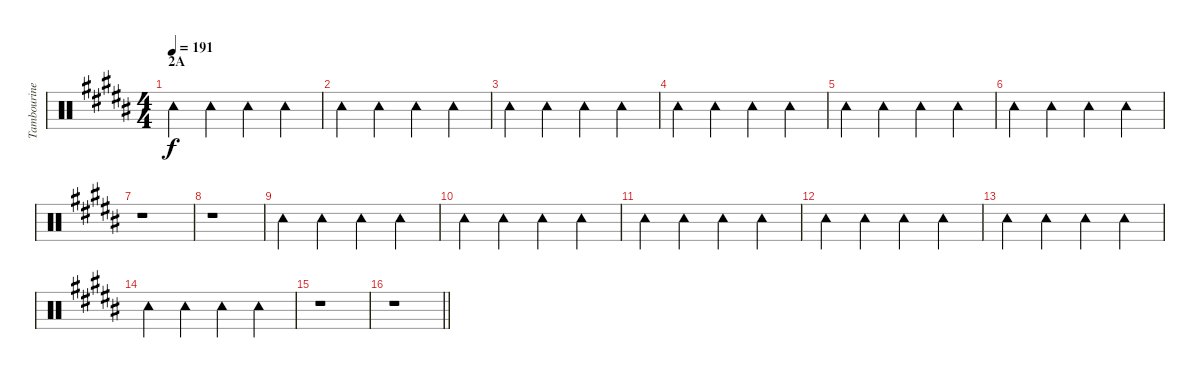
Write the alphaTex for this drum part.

\track ("Tambourine" "Tambourine") {instrument percussion}
\staff {score}
\articulation defaults
\ts (4 4)
\section ("" "2A")
\tempo 191
\clef neutral
\ks b "Tambourine (hit)".4{dy f} "Tambourine (hit)".4 "Tambourine (hit)".4 "Tambourine (hit)".4
|
"Tambourine (hit)".4 "Tambourine (hit)".4 "Tambourine (hit)".4 "Tambourine (hit)".4 |
"Tambourine (hit)".4 "Tambourine (hit)".4 "Tambourine (hit)".4 "Tambourine (hit)".4 |
"Tambourine (hit)".4 "Tambourine (hit)".4 "Tambourine (hit)".4 "Tambourine (hit)".4 |
"Tambourine (hit)".4 "Tambourine (hit)".4 "Tambourine (hit)".4 "Tambourine (hit)".4 |
"Tambourine (hit)".4 "Tambourine (hit)".4 "Tambourine (hit)".4 "Tambourine (hit)".4 |
r.1 |
r.1 |
"Tambourine (hit)".4 "Tambourine (hit)".4 "Tambourine (hit)".4 "Tambourine (hit)".4 |
"Tambourine (hit)".4 "Tambourine (hit)".4 "Tambourine (hit)".4 "Tambourine (hit)".4 |
"Tambourine (hit)".4 "Tambourine (hit)".4 "Tambourine (hit)".4 "Tambourine (hit)".4 |
"Tambourine (hit)".4 "Tambourine (hit)".4 "Tambourine (hit)".4 "Tambourine (hit)".4 |
"Tambourine (hit)".4 "Tambourine (hit)".4 "Tambourine (hit)".4 "Tambourine (hit)".4 |
"Tambourine (hit)".4 "Tambourine (hit)".4 "Tambourine (hit)".4 "Tambourine (hit)".4 |
r.1 |
\barLineRight lightlight
r.1
